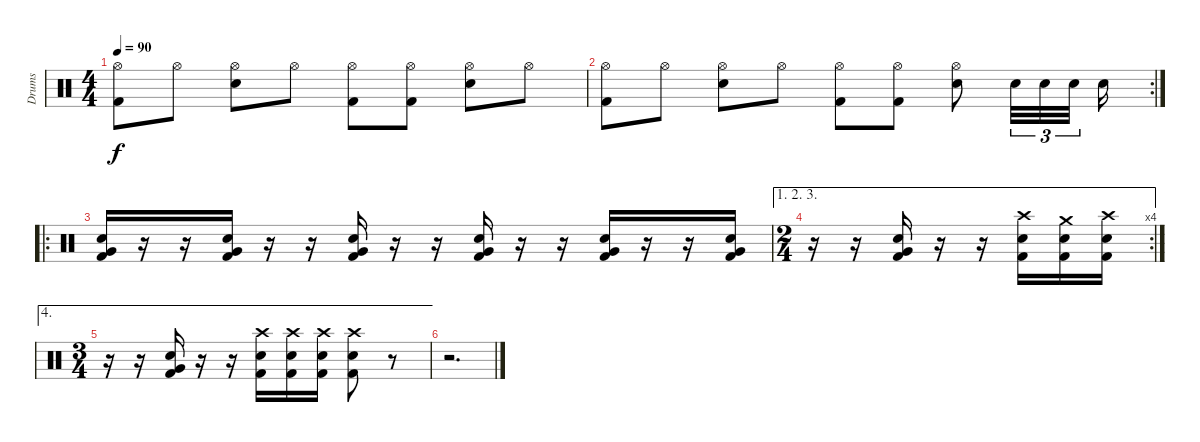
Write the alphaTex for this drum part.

\track ("Drums" "Drums") {instrument percussion}
\staff {score}
\articulation defaults
\ts (4 4)
\tempo 90
\clef neutral
\ks c
("Hi-Hat (open)" "Kick (hit) 2").8{dy f} "Hi-Hat (open)".8 ("Hi-Hat (open)" "Electric Snare (hit)").8 "Hi-Hat (open)".8 ("Hi-Hat (open)" "Kick (hit) 2").8 ("Hi-Hat (open)" "Kick (hit) 2").8 ("Hi-Hat (open)" "Electric Snare (hit)").8 "Hi-Hat (open)".8 |
\rc 2
("Hi-Hat (open)" "Kick (hit) 2").8 "Hi-Hat (open)".8 ("Hi-Hat (open)" "Electric Snare (hit)").8 "Hi-Hat (open)".8 ("Hi-Hat (open)" "Kick (hit) 2").8 ("Hi-Hat (open)" "Kick (hit) 2").8 ("Hi-Hat (open)" "Electric Snare (hit)").8 "Electric Snare (hit)".32{tu (3 2)} "Electric Snare (hit)".32{tu (3 2)} "Electric Snare (hit)".32{tu (3 2)} "Electric Snare (hit)".16 |
\ro
("Electric Snare (hit)" "Kick (hit) 2" "Very Low Tom (hit)").16 r.16 r.16 ("Electric Snare (hit)" "Kick (hit) 2" "Very Low Tom (hit)").16 r.16 r.16 ("Electric Snare (hit)" "Kick (hit) 2" "Very Low Tom (hit)").16 r.16 r.16 ("Electric Snare (hit)" "Kick (hit) 2" "Very Low Tom (hit)").16 r.16 r.16 ("Electric Snare (hit)" "Kick (hit) 2" "Very Low Tom (hit)").16 r.16 r.16 ("Electric Snare (hit)" "Kick (hit) 2" "Very Low Tom (hit)").16 |
\ae (1 2 3)
\rc 4
\ts (2 4)
r.16 r.16 ("Electric Snare (hit)" "Kick (hit) 2" "Very Low Tom (hit)").16 r.16 r.16 ("Crash high (hit)" "Electric Snare (hit)" "Kick (hit) 2").16 ("Crash medium (hit)" "Electric Snare (hit)" "Kick (hit) 2").16 ("Crash high (hit)" "Electric Snare (hit)" "Kick (hit) 2").16 |
\ae 4
\ts (3 4)
r.16 r.16 ("Electric Snare (hit)" "Kick (hit) 2" "Very Low Tom (hit)").16 r.16 r.16 ("Electric Snare (hit)" "Kick (hit) 2" "Crash high (hit)").16 ("Electric Snare (hit)" "Kick (hit) 2" "Crash high (hit)").16 ("Electric Snare (hit)" "Kick (hit) 2" "Crash high (hit)").16 ("Electric Snare (hit)" "Kick (hit) 2" "Crash high (hit)").8 r.8 |
r.2{d}
